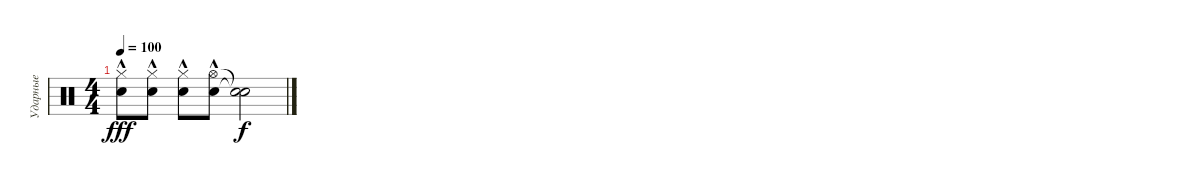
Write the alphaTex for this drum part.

\track ("Ударные" "Ударные") {instrument percussion}
\staff {score}
\articulation defaults
\ts (4 4)
\tempo 100
\clef neutral
\ks c
("Hi-Hat (closed)" "Snare (hit) 2"{hac}).8{dy fff} ("Hi-Hat (closed)" "Snare (hit) 2"{hac}).8 ("Hi-Hat (closed)" "Snare (hit) 2"{hac}).8 ("Hi-Hat (open)" "Snare (hit) 2"{hac}).8 ("Snare (hit)"{t} "Snare (hit)"{t}).2{dy f}
